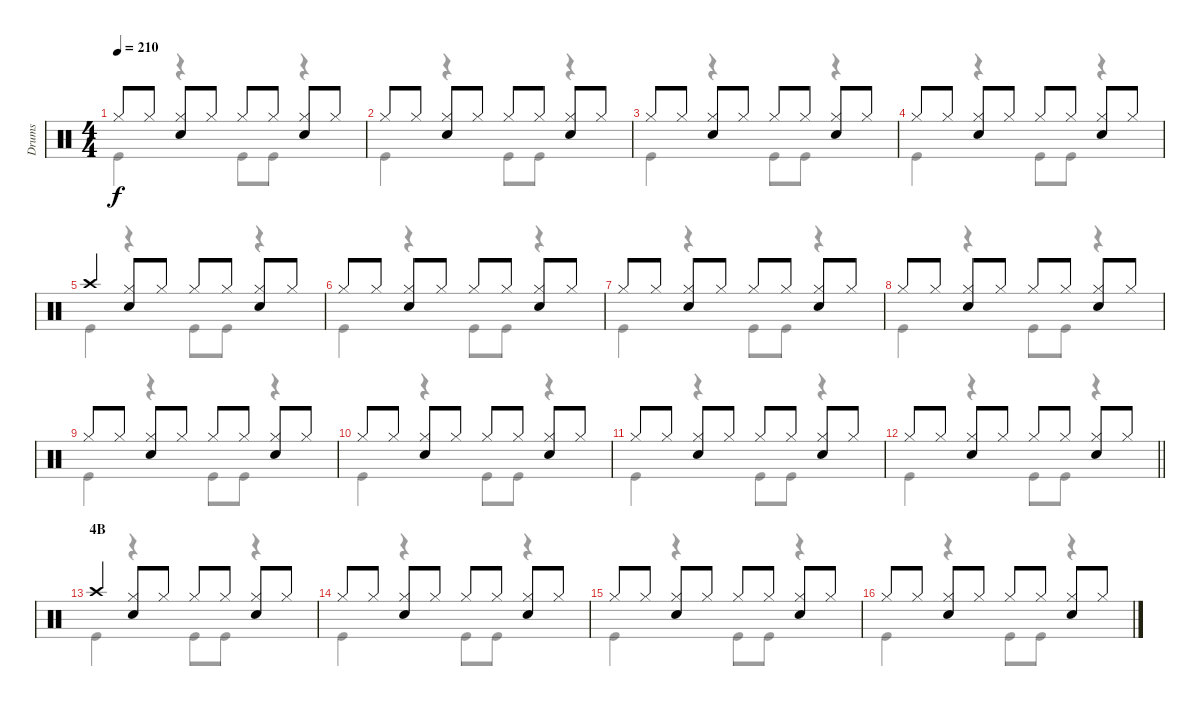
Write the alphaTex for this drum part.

\track ("Drums" "Drums") {instrument percussion}
\staff {score}
\articulation defaults
\voice
\ts (4 4)
\tempo 210
\clef neutral
\ks c "Hi-Hat (closed)".8{dy f} "Hi-Hat (closed)".8
("Hi-Hat (closed)" "Snare (hit) 2").8 "Hi-Hat (closed)".8 "Hi-Hat (closed)".8 "Hi-Hat (closed)".8 ("Hi-Hat (closed)" "Snare (hit) 2").8 "Hi-Hat (closed)".8 |
"Hi-Hat (closed)".8 "Hi-Hat (closed)".8 ("Hi-Hat (closed)" "Snare (hit) 2").8 "Hi-Hat (closed)".8 "Hi-Hat (closed)".8 "Hi-Hat (closed)".8 ("Hi-Hat (closed)" "Snare (hit) 2").8 "Hi-Hat (closed)".8 |
"Hi-Hat (closed)".8 "Hi-Hat (closed)".8 ("Hi-Hat (closed)" "Snare (hit) 2").8 "Hi-Hat (closed)".8 "Hi-Hat (closed)".8 "Hi-Hat (closed)".8 ("Hi-Hat (closed)" "Snare (hit) 2").8 "Hi-Hat (closed)".8 |
"Hi-Hat (closed)".8 "Hi-Hat (closed)".8 ("Hi-Hat (closed)" "Snare (hit) 2").8 "Hi-Hat (closed)".8 "Hi-Hat (closed)".8 "Hi-Hat (closed)".8 ("Hi-Hat (closed)" "Snare (hit) 2").8 "Hi-Hat (closed)".8 |
"Crash high (hit)".4 ("Hi-Hat (closed)" "Snare (hit) 2").8 "Hi-Hat (closed)".8 "Hi-Hat (closed)".8 "Hi-Hat (closed)".8 ("Hi-Hat (closed)" "Snare (hit) 2").8 "Hi-Hat (closed)".8 |
"Hi-Hat (closed)".8 "Hi-Hat (closed)".8 ("Hi-Hat (closed)" "Snare (hit) 2").8 "Hi-Hat (closed)".8 "Hi-Hat (closed)".8 "Hi-Hat (closed)".8 ("Hi-Hat (closed)" "Snare (hit) 2").8 "Hi-Hat (closed)".8 |
"Hi-Hat (closed)".8 "Hi-Hat (closed)".8 ("Hi-Hat (closed)" "Snare (hit) 2").8 "Hi-Hat (closed)".8 "Hi-Hat (closed)".8 "Hi-Hat (closed)".8 ("Hi-Hat (closed)" "Snare (hit) 2").8 "Hi-Hat (closed)".8 |
"Hi-Hat (closed)".8 "Hi-Hat (closed)".8 ("Hi-Hat (closed)" "Snare (hit) 2").8 "Hi-Hat (closed)".8 "Hi-Hat (closed)".8 "Hi-Hat (closed)".8 ("Hi-Hat (closed)" "Snare (hit) 2").8 "Hi-Hat (closed)".8 |
"Hi-Hat (closed)".8 "Hi-Hat (closed)".8 ("Hi-Hat (closed)" "Snare (hit) 2").8 "Hi-Hat (closed)".8 "Hi-Hat (closed)".8 "Hi-Hat (closed)".8 ("Hi-Hat (closed)" "Snare (hit) 2").8 "Hi-Hat (closed)".8 |
"Hi-Hat (closed)".8 "Hi-Hat (closed)".8 ("Hi-Hat (closed)" "Snare (hit) 2").8 "Hi-Hat (closed)".8 "Hi-Hat (closed)".8 "Hi-Hat (closed)".8 ("Hi-Hat (closed)" "Snare (hit) 2").8 "Hi-Hat (closed)".8 |
"Hi-Hat (closed)".8 "Hi-Hat (closed)".8 ("Hi-Hat (closed)" "Snare (hit) 2").8 "Hi-Hat (closed)".8 "Hi-Hat (closed)".8 "Hi-Hat (closed)".8 ("Hi-Hat (closed)" "Snare (hit) 2").8 "Hi-Hat (closed)".8 |
\barLineRight lightlight "Hi-Hat (closed)".8 "Hi-Hat (closed)".8
("Hi-Hat (closed)" "Snare (hit) 2").8 "Hi-Hat (closed)".8 "Hi-Hat (closed)".8 "Hi-Hat (closed)".8 ("Hi-Hat (closed)" "Snare (hit) 2").8 "Hi-Hat (closed)".8 |
\section ("" "4B")
"Crash high (hit)".4 ("Hi-Hat (closed)" "Snare (hit) 2").8 "Hi-Hat (closed)".8 "Hi-Hat (closed)".8 "Hi-Hat (closed)".8 ("Hi-Hat (closed)" "Snare (hit) 2").8 "Hi-Hat (closed)".8 |
"Hi-Hat (closed)".8 "Hi-Hat (closed)".8 ("Hi-Hat (closed)" "Snare (hit) 2").8 "Hi-Hat (closed)".8 "Hi-Hat (closed)".8 "Hi-Hat (closed)".8 ("Hi-Hat (closed)" "Snare (hit) 2").8 "Hi-Hat (closed)".8 |
"Hi-Hat (closed)".8 "Hi-Hat (closed)".8 ("Hi-Hat (closed)" "Snare (hit) 2").8 "Hi-Hat (closed)".8 "Hi-Hat (closed)".8 "Hi-Hat (closed)".8 ("Hi-Hat (closed)" "Snare (hit) 2").8 "Hi-Hat (closed)".8 |
"Hi-Hat (closed)".8 "Hi-Hat (closed)".8 ("Hi-Hat (closed)" "Snare (hit) 2").8 "Hi-Hat (closed)".8 "Hi-Hat (closed)".8 "Hi-Hat (closed)".8 ("Hi-Hat (closed)" "Snare (hit) 2").8 "Hi-Hat (closed)".8
\voice
\clef neutral
\ottava regular
\simile none
\ks c "Kick (hit)".4{dy f}
r.4 "Kick (hit)".8 "Kick (hit)".8 r.4 |
"Kick (hit)".4 r.4 "Kick (hit)".8 "Kick (hit)".8 r.4 |
"Kick (hit)".4 r.4 "Kick (hit)".8 "Kick (hit)".8 r.4 |
"Kick (hit)".4 r.4 "Kick (hit)".8 "Kick (hit)".8 r.4 |
"Kick (hit)".4 r.4 "Kick (hit)".8 "Kick (hit)".8 r.4 |
"Kick (hit)".4 r.4 "Kick (hit)".8 "Kick (hit)".8 r.4 |
"Kick (hit)".4 r.4 "Kick (hit)".8 "Kick (hit)".8 r.4 |
"Kick (hit)".4 r.4 "Kick (hit)".8 "Kick (hit)".8 r.4 |
"Kick (hit)".4 r.4 "Kick (hit)".8 "Kick (hit)".8 r.4 |
"Kick (hit)".4 r.4 "Kick (hit)".8 "Kick (hit)".8 r.4 |
"Kick (hit)".4 r.4 "Kick (hit)".8 "Kick (hit)".8 r.4 |
\barLineRight lightlight "Kick (hit)".4
r.4 "Kick (hit)".8 "Kick (hit)".8 r.4 |
"Kick (hit)".4 r.4 "Kick (hit)".8 "Kick (hit)".8 r.4 |
"Kick (hit)".4 r.4 "Kick (hit)".8 "Kick (hit)".8 r.4 |
"Kick (hit)".4 r.4 "Kick (hit)".8 "Kick (hit)".8 r.4 |
"Kick (hit)".4 r.4 "Kick (hit)".8 "Kick (hit)".8 r.4
